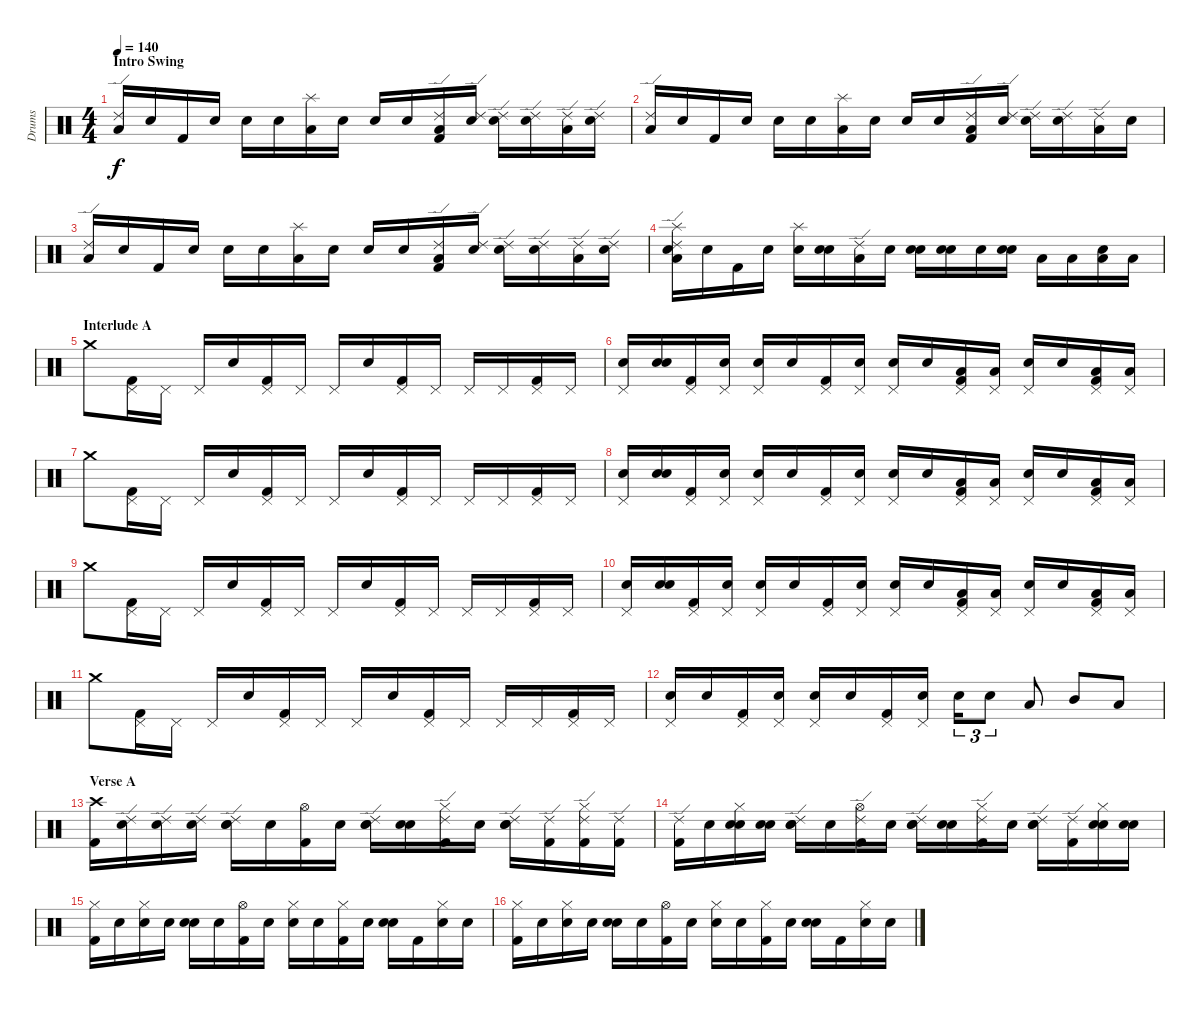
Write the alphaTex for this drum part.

\track ("Drums" "Drums") {instrument percussion}
\staff {score}
\articulation defaults
\ts (4 4)
\section ("" "Intro Swing")
\tempo 140
\clef neutral
\ks c
("Low Tom (hit)" "Ride (edge) 2").16{dy f} "Snare (hit)".16 "Kick (hit) 2".16 "Snare (hit)".16 "Electric Snare (hit)".16 "Snare (hit)".16 ("Low Tom (hit)" "Splash (hit)").16 "Snare (hit)".16 "Snare (hit)".16 "Snare (hit)".16 ("Kick (hit) 2" "Low Tom (hit)" "Ride (edge) 2").16 ("Snare (hit)" "Ride (edge) 2").16 ("Electric Snare (hit)" "Ride (edge) 2").16 ("Snare (hit)" "Ride (edge) 2").16 ("Low Tom (hit)" "Ride (edge) 2").16 ("Snare (hit)" "Ride (edge) 2").16 |
("Low Tom (hit)" "Ride (edge) 2").16 "Snare (hit)".16 "Kick (hit) 2".16 "Snare (hit)".16 "Electric Snare (hit)".16 "Snare (hit)".16 ("Low Tom (hit)" "Splash (hit)").16 "Snare (hit)".16 "Snare (hit)".16 "Snare (hit)".16 ("Kick (hit) 2" "Low Tom (hit)" "Ride (edge) 2").16 ("Snare (hit)" "Ride (edge) 2").16 ("Electric Snare (hit)" "Ride (edge) 2").16 ("Snare (hit)" "Ride (edge) 2").16 ("Low Tom (hit)" "Ride (edge) 2").16 "Snare (hit)".16 |
("Low Tom (hit)" "Ride (edge) 2").16 "Snare (hit)".16 "Kick (hit) 2".16 "Snare (hit)".16 "Electric Snare (hit)".16 "Snare (hit)".16 ("Low Tom (hit)" "Splash (hit)").16 "Snare (hit)".16 "Snare (hit)".16 "Snare (hit)".16 ("Kick (hit) 2" "Low Tom (hit)" "Ride (edge) 2").16 ("Snare (hit)" "Ride (edge) 2").16 ("Electric Snare (hit)" "Ride (edge) 2").16 ("Snare (hit)" "Ride (edge) 2").16 ("Low Tom (hit)" "Ride (edge) 2").16 ("Snare (hit)" "Ride (edge) 2").16 |
("Electric Snare (hit)" "Low Tom (hit)" "Ride (edge) 2" "Splash (hit)").16 "Snare (hit)".16 "Kick (hit) 2".16 "Snare (hit)".16 ("Electric Snare (hit)" "Splash (hit)").16 ("Snare (hit)" "Snare (hit)").16 ("Low Tom (hit)" "Ride (edge) 2").16 "Snare (hit)".16 ("Snare (hit)" "Electric Snare (hit)").16 ("Snare (hit)" "Electric Snare (hit)").16 "Electric Snare (hit)".16 ("Snare (hit)" "Electric Snare (hit)").16 "Low Tom (hit)".16 "Low Tom (hit)".16 ("Snare (hit)" "Low Tom (hit)").16 "Low Tom (hit)".16 |
\section ("" "Interlude A")
"Crash medium (hit)".8 ("Kick (hit) 2" "Pedal Hi-Hat (hit)").16 "Pedal Hi-Hat (hit)".16 "Pedal Hi-Hat (hit)".16 "Snare (hit)".16 ("Kick (hit) 2" "Pedal Hi-Hat (hit)").16 "Pedal Hi-Hat (hit)".16 "Pedal Hi-Hat (hit)".16 "Snare (hit)".16 ("Kick (hit) 2" "Pedal Hi-Hat (hit)").16 "Pedal Hi-Hat (hit)".16 "Pedal Hi-Hat (hit)".16 "Pedal Hi-Hat (hit)".16 ("Kick (hit) 2" "Pedal Hi-Hat (hit)").16 "Pedal Hi-Hat (hit)".16 |
("Snare (hit)" "Pedal Hi-Hat (hit)").16 ("Snare (hit)" "Snare (hit)").16 ("Kick (hit) 2" "Pedal Hi-Hat (hit)").16 ("Snare (hit)" "Pedal Hi-Hat (hit)").16 ("Snare (hit)" "Pedal Hi-Hat (hit)").16 "Snare (hit)".16 ("Kick (hit) 2" "Pedal Hi-Hat (hit)").16 ("Snare (hit)" "Pedal Hi-Hat (hit)").16 ("Electric Snare (hit)" "Pedal Hi-Hat (hit)").16 "Electric Snare (hit)".16 ("Kick (hit) 2" "Low Tom (hit)" "Pedal Hi-Hat (hit)").16 ("Low Tom (hit)" "Pedal Hi-Hat (hit)").16 ("Electric Snare (hit)" "Pedal Hi-Hat (hit)").16 "Electric Snare (hit)".16 ("Kick (hit) 2" "Low Tom (hit)" "Pedal Hi-Hat (hit)").16 ("Low Tom (hit)" "Pedal Hi-Hat (hit)").16 |
"Crash medium (hit)".8 ("Kick (hit) 2" "Pedal Hi-Hat (hit)").16 "Pedal Hi-Hat (hit)".16 "Pedal Hi-Hat (hit)".16 "Snare (hit)".16 ("Kick (hit) 2" "Pedal Hi-Hat (hit)").16 "Pedal Hi-Hat (hit)".16 "Pedal Hi-Hat (hit)".16 "Snare (hit)".16 ("Kick (hit) 2" "Pedal Hi-Hat (hit)").16 "Pedal Hi-Hat (hit)".16 "Pedal Hi-Hat (hit)".16 "Pedal Hi-Hat (hit)".16 ("Kick (hit) 2" "Pedal Hi-Hat (hit)").16 "Pedal Hi-Hat (hit)".16 |
("Snare (hit)" "Pedal Hi-Hat (hit)").16 ("Snare (hit)" "Snare (hit)").16 ("Kick (hit) 2" "Pedal Hi-Hat (hit)").16 ("Snare (hit)" "Pedal Hi-Hat (hit)").16 ("Snare (hit)" "Pedal Hi-Hat (hit)").16 "Snare (hit)".16 ("Kick (hit) 2" "Pedal Hi-Hat (hit)").16 ("Snare (hit)" "Pedal Hi-Hat (hit)").16 ("Electric Snare (hit)" "Pedal Hi-Hat (hit)").16 "Electric Snare (hit)".16 ("Kick (hit) 2" "Low Tom (hit)" "Pedal Hi-Hat (hit)").16 ("Low Tom (hit)" "Pedal Hi-Hat (hit)").16 ("Electric Snare (hit)" "Pedal Hi-Hat (hit)").16 "Electric Snare (hit)".16 ("Kick (hit) 2" "Low Tom (hit)" "Pedal Hi-Hat (hit)").16 ("Low Tom (hit)" "Pedal Hi-Hat (hit)").16 |
"Crash medium (hit)".8 ("Kick (hit) 2" "Pedal Hi-Hat (hit)").16 "Pedal Hi-Hat (hit)".16 "Pedal Hi-Hat (hit)".16 "Snare (hit)".16 ("Kick (hit) 2" "Pedal Hi-Hat (hit)").16 "Pedal Hi-Hat (hit)".16 "Pedal Hi-Hat (hit)".16 "Snare (hit)".16 ("Kick (hit) 2" "Pedal Hi-Hat (hit)").16 "Pedal Hi-Hat (hit)".16 "Pedal Hi-Hat (hit)".16 "Pedal Hi-Hat (hit)".16 ("Kick (hit) 2" "Pedal Hi-Hat (hit)").16 "Pedal Hi-Hat (hit)".16 |
("Snare (hit)" "Pedal Hi-Hat (hit)").16 ("Snare (hit)" "Snare (hit)").16 ("Kick (hit) 2" "Pedal Hi-Hat (hit)").16 ("Snare (hit)" "Pedal Hi-Hat (hit)").16 ("Snare (hit)" "Pedal Hi-Hat (hit)").16 "Snare (hit)".16 ("Kick (hit) 2" "Pedal Hi-Hat (hit)").16 ("Snare (hit)" "Pedal Hi-Hat (hit)").16 ("Electric Snare (hit)" "Pedal Hi-Hat (hit)").16 "Electric Snare (hit)".16 ("Kick (hit) 2" "Low Tom (hit)" "Pedal Hi-Hat (hit)").16 ("Low Tom (hit)" "Pedal Hi-Hat (hit)").16 ("Electric Snare (hit)" "Pedal Hi-Hat (hit)").16 "Electric Snare (hit)".16 ("Kick (hit) 2" "Low Tom (hit)" "Pedal Hi-Hat (hit)").16 ("Low Tom (hit)" "Pedal Hi-Hat (hit)").16 |
"Crash medium (hit)".8 ("Kick (hit) 2" "Pedal Hi-Hat (hit)").16 "Pedal Hi-Hat (hit)".16 "Pedal Hi-Hat (hit)".16 "Snare (hit)".16 ("Kick (hit) 2" "Pedal Hi-Hat (hit)").16 "Pedal Hi-Hat (hit)".16 "Pedal Hi-Hat (hit)".16 "Snare (hit)".16 ("Kick (hit) 2" "Pedal Hi-Hat (hit)").16 "Pedal Hi-Hat (hit)".16 "Pedal Hi-Hat (hit)".16 "Pedal Hi-Hat (hit)".16 ("Kick (hit) 2" "Pedal Hi-Hat (hit)").16 "Pedal Hi-Hat (hit)".16 |
("Snare (hit)" "Pedal Hi-Hat (hit)").16 "Snare (hit)".16 ("Kick (hit) 2" "Pedal Hi-Hat (hit)").16 ("Snare (hit)" "Pedal Hi-Hat (hit)").16 ("Snare (hit)" "Pedal Hi-Hat (hit)").16 "Snare (hit)".16 ("Kick (hit) 2" "Pedal Hi-Hat (hit)").16 ("Snare (hit)" "Pedal Hi-Hat (hit)").16 "Electric Snare (hit)".16{tu (3 2)} "Electric Snare (hit)".8{tu (3 2)} "Low Tom (hit)".8 "Mid Tom (hit)".8 "Low Tom (hit)".8 |
\section ("" "Verse A")
("Kick (hit) 2" "Crash high (hit)").16 ("Snare (hit)" "Ride (edge) 2").16 ("Snare (hit)" "Ride (edge) 2").16 ("Snare (hit)" "Ride (edge) 2").16 ("Snare (hit)" "Electric Snare (hit)" "Ride (edge) 2").16 "Snare (hit)".16 ("Kick (hit) 2" "Hi-Hat (open)").16 "Snare (hit)".16 ("Snare (hit)" "Snare (hit)" "Ride (edge) 2").16 ("Snare (hit)" "Snare (hit)").16 ("Kick (hit) 2" "Hi-Hat (closed)" "Ride (edge) 2").16 "Snare (hit)".16 ("Snare (hit)" "Electric Snare (hit)" "Ride (edge) 2").16 ("Kick (hit) 2" "Ride (edge) 2").16 ("Kick (hit) 2" "Hi-Hat (closed)" "Ride (edge) 2").16 ("Kick (hit) 2" "Ride (edge) 2").16 |
("Kick (hit) 2" "Ride (edge) 2").16 "Snare (hit)".16 ("Snare (hit)" "Hi-Hat (closed)" "Snare (hit)").16 ("Snare (hit)" "Snare (hit)").16 ("Snare (hit)" "Electric Snare (hit)" "Ride (edge) 2").16 "Snare (hit)".16 ("Kick (hit) 2" "Hi-Hat (open)" "Ride (edge) 2").16 "Snare (hit)".16 ("Snare (hit)" "Snare (hit)" "Ride (edge) 2").16 ("Snare (hit)" "Snare (hit)").16 ("Kick (hit) 2" "Hi-Hat (closed)" "Ride (edge) 2").16 "Snare (hit)".16 ("Snare (hit)" "Electric Snare (hit)" "Ride (edge) 2").16 ("Kick (hit) 2" "Ride (edge) 2").16 ("Snare (hit)" "Hi-Hat (closed)" "Snare (hit)").16 ("Snare (hit)" "Snare (hit)").16 |
("Kick (hit) 2" "Hi-Hat (closed)").16 "Snare (hit)".16 ("Snare (hit)" "Hi-Hat (closed)").16 "Snare (hit)".16 ("Snare (hit)" "Electric Snare (hit)").16 "Snare (hit)".16 ("Kick (hit) 2" "Hi-Hat (open)").16 "Snare (hit)".16 ("Snare (hit)" "Hi-Hat (closed)").16 "Snare (hit)".16 ("Kick (hit) 2" "Hi-Hat (closed)").16 "Snare (hit)".16 ("Snare (hit)" "Electric Snare (hit)").16 "Kick (hit) 2".16 ("Snare (hit)" "Hi-Hat (closed)").16 "Snare (hit)".16 |
("Kick (hit) 2" "Hi-Hat (closed)").16 "Snare (hit)".16 ("Snare (hit)" "Hi-Hat (closed)").16 "Snare (hit)".16 ("Snare (hit)" "Electric Snare (hit)").16 "Snare (hit)".16 ("Kick (hit) 2" "Hi-Hat (open)").16 "Snare (hit)".16 ("Snare (hit)" "Hi-Hat (closed)").16 "Snare (hit)".16 ("Kick (hit) 2" "Hi-Hat (closed)").16 "Snare (hit)".16 ("Snare (hit)" "Electric Snare (hit)").16 "Kick (hit) 2".16 ("Snare (hit)" "Hi-Hat (closed)").16 "Snare (hit)".16
